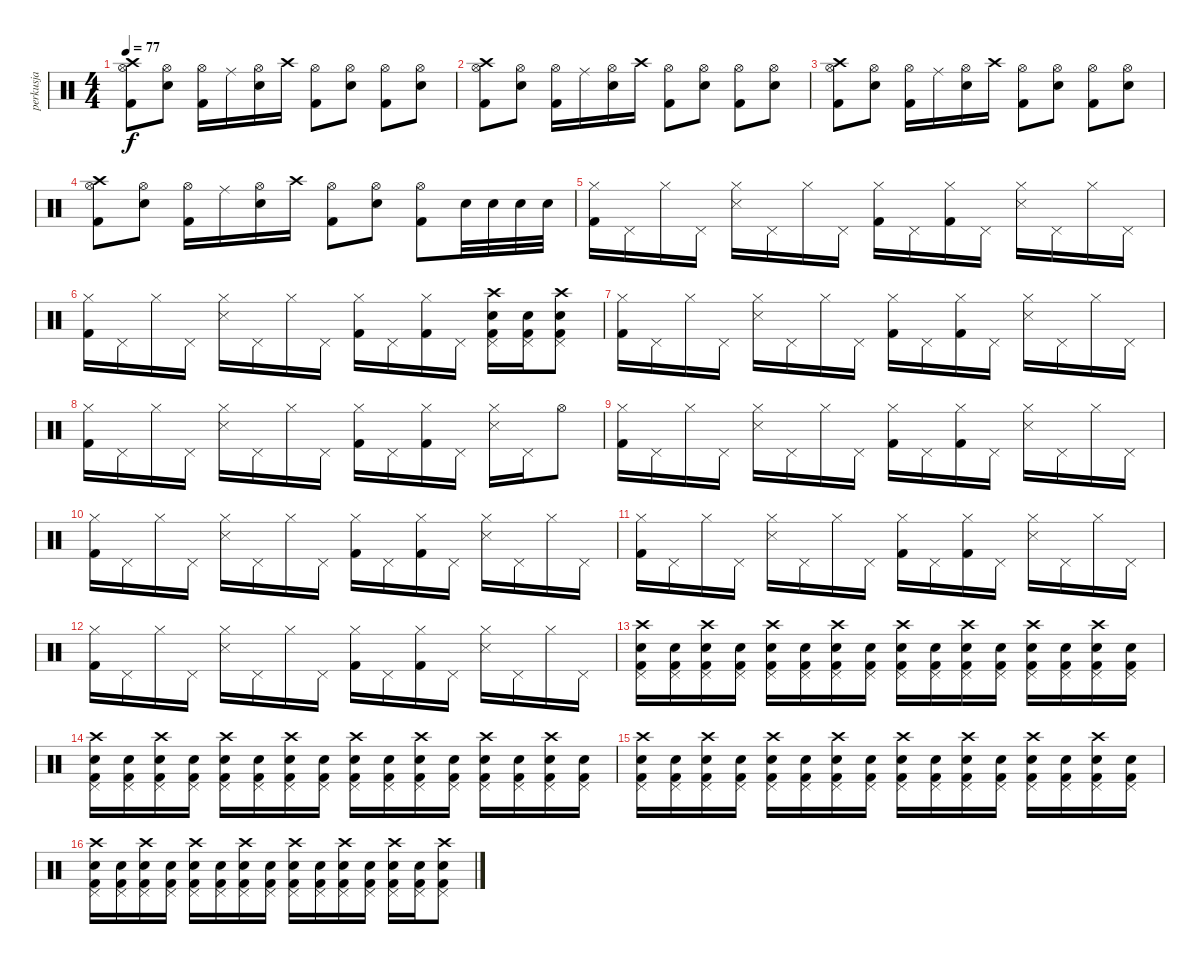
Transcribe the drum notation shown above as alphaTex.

\track ("perkusja" "perkusja") {instrument percussion}
\staff {score}
\articulation defaults
\ts (4 4)
\tempo 77
\clef neutral
\ks c
("Hi-Hat (open)" "Crash high (hit)" "Kick (hit) 2").8{dy f} ("Hi-Hat (open)" "Snare (hit) 2").8 ("Hi-Hat (open)" "Kick (hit) 2").16 "Ride (middle)".16 ("Hi-Hat (open)" "Snare (hit) 2").16 "Crash high (hit)".16 ("Hi-Hat (open)" "Kick (hit) 2").8 ("Hi-Hat (open)" "Snare (hit) 2").8 ("Hi-Hat (open)" "Kick (hit) 2").8 ("Hi-Hat (open)" "Snare (hit) 2").8 |
("Hi-Hat (open)" "Crash high (hit)" "Kick (hit) 2").8 ("Hi-Hat (open)" "Snare (hit) 2").8 ("Hi-Hat (open)" "Kick (hit) 2").16 "Ride (middle)".16 ("Hi-Hat (open)" "Snare (hit) 2").16 "Crash high (hit)".16 ("Hi-Hat (open)" "Kick (hit) 2").8 ("Hi-Hat (open)" "Snare (hit) 2").8 ("Hi-Hat (open)" "Kick (hit) 2").8 ("Hi-Hat (open)" "Snare (hit) 2").8 |
("Hi-Hat (open)" "Crash high (hit)" "Kick (hit) 2").8 ("Hi-Hat (open)" "Snare (hit) 2").8 ("Hi-Hat (open)" "Kick (hit) 2").16 "Ride (middle)".16 ("Hi-Hat (open)" "Snare (hit) 2").16 "Crash high (hit)".16 ("Hi-Hat (open)" "Kick (hit) 2").8 ("Hi-Hat (open)" "Snare (hit) 2").8 ("Hi-Hat (open)" "Kick (hit) 2").8 ("Hi-Hat (open)" "Snare (hit) 2").8 |
("Hi-Hat (open)" "Crash high (hit)" "Kick (hit) 2").8 ("Hi-Hat (open)" "Snare (hit) 2").8 ("Hi-Hat (open)" "Kick (hit) 2").16 "Ride (middle)".16 ("Hi-Hat (open)" "Snare (hit) 2").16 "Crash high (hit)".16 ("Hi-Hat (open)" "Kick (hit) 2").8 ("Hi-Hat (open)" "Snare (hit) 2").8 ("Hi-Hat (open)" "Kick (hit) 2").8 "Snare (hit) 2".32 "Snare (hit) 2".32 "Snare (hit) 2".32 "Snare (hit) 2".32 |
("Hi-Hat (closed)" "Kick (hit) 2").16 "Pedal Hi-Hat (hit)".16 "Hi-Hat (closed)".16 "Pedal Hi-Hat (hit)".16 ("Hi-Hat (closed)" "Snare (side stick) 3").16 "Pedal Hi-Hat (hit)".16 "Hi-Hat (closed)".16 "Pedal Hi-Hat (hit)".16 ("Hi-Hat (closed)" "Kick (hit) 2").16 "Pedal Hi-Hat (hit)".16 ("Hi-Hat (closed)" "Kick (hit) 2").16 "Pedal Hi-Hat (hit)".16 ("Hi-Hat (closed)" "Snare (side stick) 3").16 "Pedal Hi-Hat (hit)".16 "Hi-Hat (closed)".16 "Pedal Hi-Hat (hit)".16 |
("Hi-Hat (closed)" "Kick (hit) 2").16 "Pedal Hi-Hat (hit)".16 "Hi-Hat (closed)".16 "Pedal Hi-Hat (hit)".16 ("Hi-Hat (closed)" "Snare (side stick) 3").16 "Pedal Hi-Hat (hit)".16 "Hi-Hat (closed)".16 "Pedal Hi-Hat (hit)".16 ("Hi-Hat (closed)" "Kick (hit) 2").16 "Pedal Hi-Hat (hit)".16 ("Hi-Hat (closed)" "Kick (hit) 2").16 "Pedal Hi-Hat (hit)".16 ("Crash high (hit)" "Pedal Hi-Hat (hit)" "Snare (hit) 2" "Kick (hit) 2").16 ("Pedal Hi-Hat (hit)" "Snare (hit) 2" "Kick (hit) 2").16 ("Crash high (hit)" "Pedal Hi-Hat (hit)" "Snare (hit) 2" "Kick (hit) 2").8 |
("Hi-Hat (closed)" "Kick (hit) 2").16 "Pedal Hi-Hat (hit)".16 "Hi-Hat (closed)".16 "Pedal Hi-Hat (hit)".16 ("Hi-Hat (closed)" "Snare (side stick) 3").16 "Pedal Hi-Hat (hit)".16 "Hi-Hat (closed)".16 "Pedal Hi-Hat (hit)".16 ("Hi-Hat (closed)" "Kick (hit) 2").16 "Pedal Hi-Hat (hit)".16 ("Hi-Hat (closed)" "Kick (hit) 2").16 "Pedal Hi-Hat (hit)".16 ("Hi-Hat (closed)" "Snare (side stick) 3").16 "Pedal Hi-Hat (hit)".16 "Hi-Hat (closed)".16 "Pedal Hi-Hat (hit)".16 |
("Hi-Hat (closed)" "Kick (hit) 2").16 "Pedal Hi-Hat (hit)".16 "Hi-Hat (closed)".16 "Pedal Hi-Hat (hit)".16 ("Hi-Hat (closed)" "Snare (side stick) 3").16 "Pedal Hi-Hat (hit)".16 "Hi-Hat (closed)".16 "Pedal Hi-Hat (hit)".16 ("Hi-Hat (closed)" "Kick (hit) 2").16 "Pedal Hi-Hat (hit)".16 ("Hi-Hat (closed)" "Kick (hit) 2").16 "Pedal Hi-Hat (hit)".16 ("Hi-Hat (closed)" "Snare (side stick) 3").16 "Pedal Hi-Hat (hit)".16 "Hi-Hat (open)".8 |
("Hi-Hat (closed)" "Kick (hit) 2").16 "Pedal Hi-Hat (hit)".16 "Hi-Hat (closed)".16 "Pedal Hi-Hat (hit)".16 ("Hi-Hat (closed)" "Snare (side stick) 3").16 "Pedal Hi-Hat (hit)".16 "Hi-Hat (closed)".16 "Pedal Hi-Hat (hit)".16 ("Hi-Hat (closed)" "Kick (hit) 2").16 "Pedal Hi-Hat (hit)".16 ("Hi-Hat (closed)" "Kick (hit) 2").16 "Pedal Hi-Hat (hit)".16 ("Hi-Hat (closed)" "Snare (side stick) 3").16 "Pedal Hi-Hat (hit)".16 "Hi-Hat (closed)".16 "Pedal Hi-Hat (hit)".16 |
("Hi-Hat (closed)" "Kick (hit) 2").16 "Pedal Hi-Hat (hit)".16 "Hi-Hat (closed)".16 "Pedal Hi-Hat (hit)".16 ("Hi-Hat (closed)" "Snare (side stick) 3").16 "Pedal Hi-Hat (hit)".16 "Hi-Hat (closed)".16 "Pedal Hi-Hat (hit)".16 ("Hi-Hat (closed)" "Kick (hit) 2").16 "Pedal Hi-Hat (hit)".16 ("Hi-Hat (closed)" "Kick (hit) 2").16 "Pedal Hi-Hat (hit)".16 ("Hi-Hat (closed)" "Snare (side stick) 3").16 "Pedal Hi-Hat (hit)".16 "Hi-Hat (closed)".16 "Pedal Hi-Hat (hit)".16 |
("Hi-Hat (closed)" "Kick (hit) 2").16 "Pedal Hi-Hat (hit)".16 "Hi-Hat (closed)".16 "Pedal Hi-Hat (hit)".16 ("Hi-Hat (closed)" "Snare (side stick) 3").16 "Pedal Hi-Hat (hit)".16 "Hi-Hat (closed)".16 "Pedal Hi-Hat (hit)".16 ("Hi-Hat (closed)" "Kick (hit) 2").16 "Pedal Hi-Hat (hit)".16 ("Hi-Hat (closed)" "Kick (hit) 2").16 "Pedal Hi-Hat (hit)".16 ("Hi-Hat (closed)" "Snare (side stick) 3").16 "Pedal Hi-Hat (hit)".16 "Hi-Hat (closed)".16 "Pedal Hi-Hat (hit)".16 |
("Hi-Hat (closed)" "Kick (hit) 2").16 "Pedal Hi-Hat (hit)".16 "Hi-Hat (closed)".16 "Pedal Hi-Hat (hit)".16 ("Hi-Hat (closed)" "Snare (side stick) 3").16 "Pedal Hi-Hat (hit)".16 "Hi-Hat (closed)".16 "Pedal Hi-Hat (hit)".16 ("Hi-Hat (closed)" "Kick (hit) 2").16 "Pedal Hi-Hat (hit)".16 ("Hi-Hat (closed)" "Kick (hit) 2").16 "Pedal Hi-Hat (hit)".16 ("Hi-Hat (closed)" "Snare (side stick) 3").16 "Pedal Hi-Hat (hit)".16 "Hi-Hat (closed)".16 "Pedal Hi-Hat (hit)".16 |
("Crash high (hit)" "Pedal Hi-Hat (hit)" "Snare (hit) 2" "Kick (hit) 2").16 ("Pedal Hi-Hat (hit)" "Snare (hit) 2" "Kick (hit) 2").16 ("Crash high (hit)" "Pedal Hi-Hat (hit)" "Snare (hit) 2" "Kick (hit) 2").16 ("Pedal Hi-Hat (hit)" "Snare (hit) 2" "Kick (hit) 2").16 ("Crash high (hit)" "Pedal Hi-Hat (hit)" "Snare (hit) 2" "Kick (hit) 2").16 ("Pedal Hi-Hat (hit)" "Snare (hit) 2" "Kick (hit) 2").16 ("Crash high (hit)" "Pedal Hi-Hat (hit)" "Snare (hit) 2" "Kick (hit) 2").16 ("Pedal Hi-Hat (hit)" "Snare (hit) 2" "Kick (hit) 2").16 ("Crash high (hit)" "Pedal Hi-Hat (hit)" "Snare (hit) 2" "Kick (hit) 2").16 ("Pedal Hi-Hat (hit)" "Snare (hit) 2" "Kick (hit) 2").16 ("Crash high (hit)" "Pedal Hi-Hat (hit)" "Snare (hit) 2" "Kick (hit) 2").16 ("Pedal Hi-Hat (hit)" "Snare (hit) 2" "Kick (hit) 2").16 ("Crash high (hit)" "Pedal Hi-Hat (hit)" "Snare (hit) 2" "Kick (hit) 2").16 ("Pedal Hi-Hat (hit)" "Snare (hit) 2" "Kick (hit) 2").16 ("Crash high (hit)" "Pedal Hi-Hat (hit)" "Snare (hit) 2" "Kick (hit) 2").16 ("Pedal Hi-Hat (hit)" "Snare (hit) 2" "Kick (hit) 2").16 |
("Crash high (hit)" "Pedal Hi-Hat (hit)" "Snare (hit) 2" "Kick (hit) 2").16 ("Pedal Hi-Hat (hit)" "Snare (hit) 2" "Kick (hit) 2").16 ("Crash high (hit)" "Pedal Hi-Hat (hit)" "Snare (hit) 2" "Kick (hit) 2").16 ("Pedal Hi-Hat (hit)" "Snare (hit) 2" "Kick (hit) 2").16 ("Crash high (hit)" "Pedal Hi-Hat (hit)" "Snare (hit) 2" "Kick (hit) 2").16 ("Pedal Hi-Hat (hit)" "Snare (hit) 2" "Kick (hit) 2").16 ("Crash high (hit)" "Pedal Hi-Hat (hit)" "Snare (hit) 2" "Kick (hit) 2").16 ("Pedal Hi-Hat (hit)" "Snare (hit) 2" "Kick (hit) 2").16 ("Crash high (hit)" "Pedal Hi-Hat (hit)" "Snare (hit) 2" "Kick (hit) 2").16 ("Pedal Hi-Hat (hit)" "Snare (hit) 2" "Kick (hit) 2").16 ("Crash high (hit)" "Pedal Hi-Hat (hit)" "Snare (hit) 2" "Kick (hit) 2").16 ("Pedal Hi-Hat (hit)" "Snare (hit) 2" "Kick (hit) 2").16 ("Crash high (hit)" "Pedal Hi-Hat (hit)" "Snare (hit) 2" "Kick (hit) 2").16 ("Pedal Hi-Hat (hit)" "Snare (hit) 2" "Kick (hit) 2").16 ("Crash high (hit)" "Pedal Hi-Hat (hit)" "Snare (hit) 2" "Kick (hit) 2").16 ("Pedal Hi-Hat (hit)" "Snare (hit) 2" "Kick (hit) 2").16 |
("Crash high (hit)" "Pedal Hi-Hat (hit)" "Snare (hit) 2" "Kick (hit) 2").16 ("Pedal Hi-Hat (hit)" "Snare (hit) 2" "Kick (hit) 2").16 ("Crash high (hit)" "Pedal Hi-Hat (hit)" "Snare (hit) 2" "Kick (hit) 2").16 ("Pedal Hi-Hat (hit)" "Snare (hit) 2" "Kick (hit) 2").16 ("Crash high (hit)" "Pedal Hi-Hat (hit)" "Snare (hit) 2" "Kick (hit) 2").16 ("Pedal Hi-Hat (hit)" "Snare (hit) 2" "Kick (hit) 2").16 ("Crash high (hit)" "Pedal Hi-Hat (hit)" "Snare (hit) 2" "Kick (hit) 2").16 ("Pedal Hi-Hat (hit)" "Snare (hit) 2" "Kick (hit) 2").16 ("Crash high (hit)" "Pedal Hi-Hat (hit)" "Snare (hit) 2" "Kick (hit) 2").16 ("Pedal Hi-Hat (hit)" "Snare (hit) 2" "Kick (hit) 2").16 ("Crash high (hit)" "Pedal Hi-Hat (hit)" "Snare (hit) 2" "Kick (hit) 2").16 ("Pedal Hi-Hat (hit)" "Snare (hit) 2" "Kick (hit) 2").16 ("Crash high (hit)" "Pedal Hi-Hat (hit)" "Snare (hit) 2" "Kick (hit) 2").16 ("Pedal Hi-Hat (hit)" "Snare (hit) 2" "Kick (hit) 2").16 ("Crash high (hit)" "Pedal Hi-Hat (hit)" "Snare (hit) 2" "Kick (hit) 2").16 ("Pedal Hi-Hat (hit)" "Snare (hit) 2" "Kick (hit) 2").16 |
("Crash high (hit)" "Pedal Hi-Hat (hit)" "Snare (hit) 2" "Kick (hit) 2").16 ("Pedal Hi-Hat (hit)" "Snare (hit) 2" "Kick (hit) 2").16 ("Crash high (hit)" "Pedal Hi-Hat (hit)" "Snare (hit) 2" "Kick (hit) 2").16 ("Pedal Hi-Hat (hit)" "Snare (hit) 2" "Kick (hit) 2").16 ("Crash high (hit)" "Pedal Hi-Hat (hit)" "Snare (hit) 2" "Kick (hit) 2").16 ("Pedal Hi-Hat (hit)" "Snare (hit) 2" "Kick (hit) 2").16 ("Crash high (hit)" "Pedal Hi-Hat (hit)" "Snare (hit) 2" "Kick (hit) 2").16 ("Pedal Hi-Hat (hit)" "Snare (hit) 2" "Kick (hit) 2").16 ("Crash high (hit)" "Pedal Hi-Hat (hit)" "Snare (hit) 2" "Kick (hit) 2").16 ("Pedal Hi-Hat (hit)" "Snare (hit) 2" "Kick (hit) 2").16 ("Crash high (hit)" "Pedal Hi-Hat (hit)" "Snare (hit) 2" "Kick (hit) 2").16 ("Pedal Hi-Hat (hit)" "Snare (hit) 2" "Kick (hit) 2").16 ("Crash high (hit)" "Pedal Hi-Hat (hit)" "Snare (hit) 2" "Kick (hit) 2").16 ("Pedal Hi-Hat (hit)" "Snare (hit) 2" "Kick (hit) 2").16 ("Crash high (hit)" "Pedal Hi-Hat (hit)" "Snare (hit) 2" "Kick (hit) 2").8
